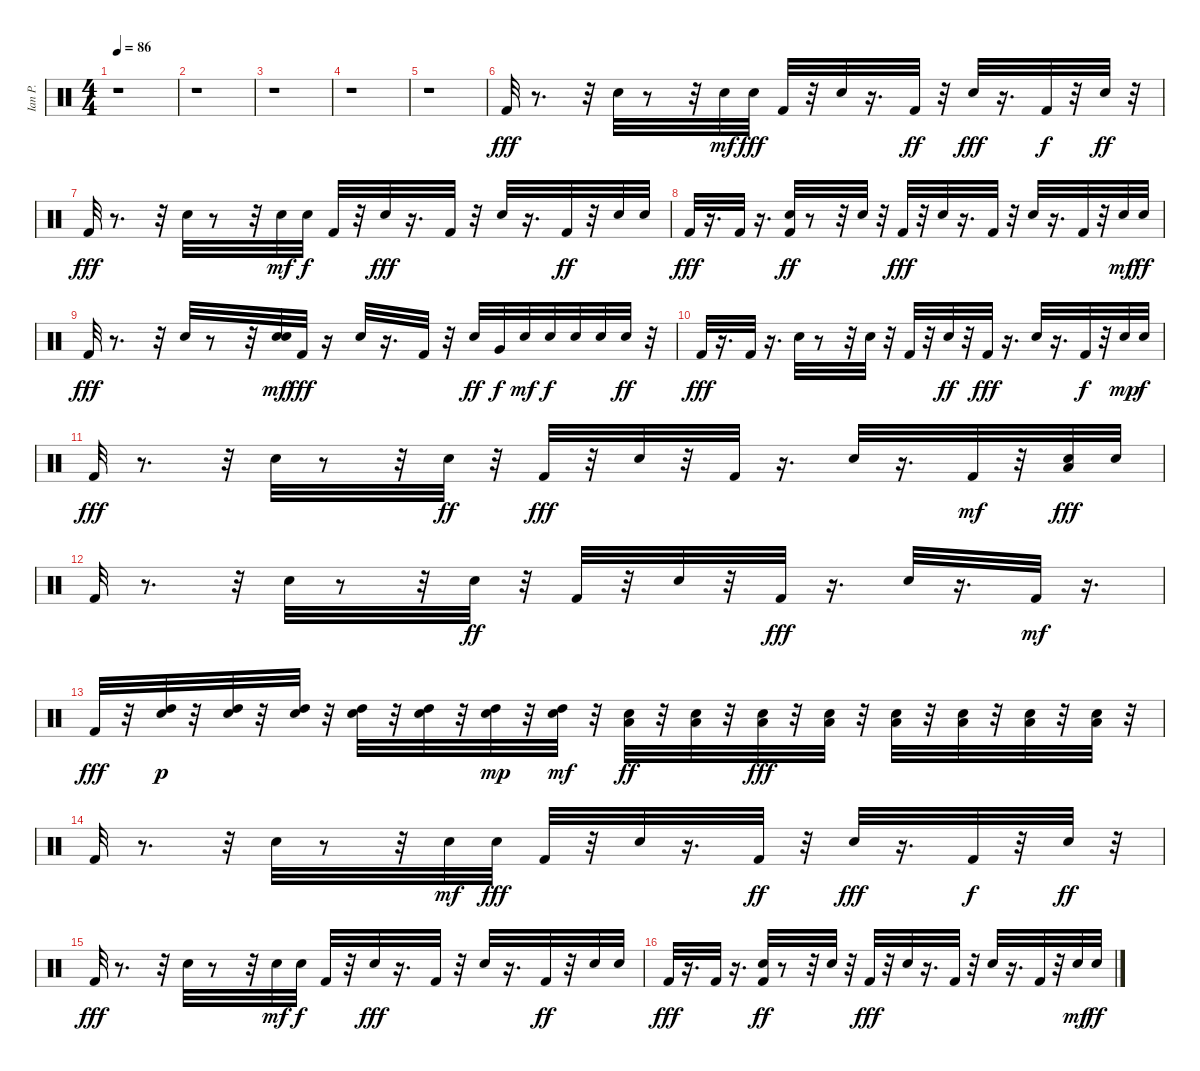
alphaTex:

\track ("Ian P." "Ian P.") {instrument percussion}
\staff {score}
\articulation defaults
\ts (4 4)
\tempo 86
\clef neutral
\ks c
r.1{dy fff} |
r.1 |
r.1 |
r.1 |
r.1 |
"Kick (hit) 2".32 r.8{d} r.32 "Snare (hit) 2".32 r.8 r.32 "Snare (hit) 2".32{dy mf} "Snare (hit) 2".32{dy fff} "Kick (hit) 2".32 r.32 "Snare (hit) 2".32 r.16{d} "Kick (hit) 2".32{dy ff} r.32 "Snare (hit) 2".32{dy fff} r.16{d} "Kick (hit) 2".32{dy f} r.32 "Snare (hit) 2".32{dy ff} r.32 |
"Kick (hit) 2".32{dy fff} r.8{d} r.32 "Snare (hit) 2".32 r.8 r.32 "Snare (hit) 2".32{dy mf} "Snare (hit) 2".32{dy f} "Kick (hit) 2".32 r.32 "Snare (hit) 2".32{dy fff} r.16{d} "Kick (hit) 2".32 r.32 "Snare (hit) 2".32 r.16{d} "Kick (hit) 2".32{dy ff} r.32 "Snare (hit) 2".32 "Snare (hit) 2".32 |
"Kick (hit) 2".32{dy fff} r.16{d} "Kick (hit) 2".32 r.16{d} ("Kick (hit) 2" "Snare (hit) 2").32{dy ff} r.8 r.32 "Snare (hit) 2".32 r.32 "Kick (hit) 2".32{dy fff} r.32 "Snare (hit) 2".32 r.16{d} "Kick (hit) 2".32 r.32 "Snare (hit) 2".32 r.16{d} "Kick (hit) 2".32 r.32 "Snare (hit) 2".32{dy mf} "Snare (hit) 2".32{dy ff} |
"Kick (hit) 2".32{dy fff} r.8{d} r.32 "Snare (hit) 2".32 r.8 r.32 ("Snare (hit) 2" "Snare (hit) 2").32{dy mf} "Kick (hit) 2".32{dy fff} r.16 "Snare (hit) 2".32 r.16{d} "Kick (hit) 2".32 r.32 "Snare (hit) 2".32{dy ff} "Very Low Tom (hit)".32{dy f} "Snare (hit) 2".32{dy mf} "Snare (hit) 2".32{dy f} "Snare (hit) 2".32 "Snare (hit) 2".32 "Snare (hit) 2".32{dy ff} r.32 |
"Kick (hit) 2".32{dy fff} r.16{d} "Kick (hit) 2".32 r.16{d} "Snare (hit) 2".32 r.8 r.32 "Snare (hit) 2".32 r.32 "Kick (hit) 2".32 r.32 "Snare (hit) 2".32{dy ff} r.32 "Kick (hit) 2".32{dy fff} r.16{d} "Snare (hit) 2".32 r.16{d} "Kick (hit) 2".32{dy f} r.32 "Snare (hit) 2".32{dy mp} "Snare (hit) 2".32{dy f} |
"Kick (hit) 2".32{dy fff} r.8{d} r.32 "Snare (hit) 2".32 r.8 r.32 "Snare (hit) 2".32{dy ff} r.32 "Kick (hit) 2".32{dy fff} r.32 "Snare (hit) 2".32 r.32 "Kick (hit) 2".32 r.16{d} "Snare (hit) 2".32 r.16{d} "Kick (hit) 2".32{dy mf} r.32 ("Snare (hit) 2" "Low Tom (hit)").32{dy fff} "Snare (hit) 2".32 |
"Kick (hit) 2".32 r.8{d} r.32 "Snare (hit) 2".32 r.8 r.32 "Snare (hit) 2".32{dy ff} r.32 "Kick (hit) 2".32 r.32 "Snare (hit) 2".32 r.32 "Kick (hit) 2".32{dy fff} r.16{d} "Snare (hit) 2".32 r.16{d} "Kick (hit) 2".32{dy mf} r.16{d} |
"Kick (hit) 2".32{dy fff} r.32 ("Snare (hit) 2" "High Tom (hit)").32{dy p} r.32 ("Snare (hit) 2" "High Tom (hit)").32 r.32 ("Snare (hit) 2" "High Tom (hit)").32 r.32 ("Snare (hit) 2" "High Tom (hit)").32 r.32 ("Snare (hit) 2" "High Tom (hit)").32 r.32 ("Snare (hit) 2" "High Tom (hit)").32{dy mp} r.32 ("Snare (hit) 2" "High Tom (hit)").32{dy mf} r.32 ("Snare (hit) 2" "Low Tom (hit)").32{dy ff} r.32 ("Snare (hit) 2" "Low Tom (hit)").32 r.32 ("Snare (hit) 2" "Low Tom (hit)").32{dy fff} r.32 ("Snare (hit) 2" "Low Tom (hit)").32 r.32 ("Snare (hit) 2" "Low Floor Tom (hit)").32 r.32 ("Snare (hit) 2" "Low Floor Tom (hit)").32 r.32 ("Snare (hit) 2" "Low Floor Tom (hit)").32 r.32 ("Snare (hit) 2" "Low Floor Tom (hit)").32 r.32 |
"Kick (hit) 2".32 r.8{d} r.32 "Snare (hit) 2".32 r.8 r.32 "Snare (hit) 2".32{dy mf} "Snare (hit) 2".32{dy fff} "Kick (hit) 2".32 r.32 "Snare (hit) 2".32 r.16{d} "Kick (hit) 2".32{dy ff} r.32 "Snare (hit) 2".32{dy fff} r.16{d} "Kick (hit) 2".32{dy f} r.32 "Snare (hit) 2".32{dy ff} r.32 |
"Kick (hit) 2".32{dy fff} r.8{d} r.32 "Snare (hit) 2".32 r.8 r.32 "Snare (hit) 2".32{dy mf} "Snare (hit) 2".32{dy f} "Kick (hit) 2".32 r.32 "Snare (hit) 2".32{dy fff} r.16{d} "Kick (hit) 2".32 r.32 "Snare (hit) 2".32 r.16{d} "Kick (hit) 2".32{dy ff} r.32 "Snare (hit) 2".32 "Snare (hit) 2".32 |
"Kick (hit) 2".32{dy fff} r.16{d} "Kick (hit) 2".32 r.16{d} ("Kick (hit) 2" "Snare (hit) 2").32{dy ff} r.8 r.32 "Snare (hit) 2".32 r.32 "Kick (hit) 2".32{dy fff} r.32 "Snare (hit) 2".32 r.16{d} "Kick (hit) 2".32 r.32 "Snare (hit) 2".32 r.16{d} "Kick (hit) 2".32 r.32 "Snare (hit) 2".32{dy mf} "Snare (hit) 2".32{dy ff}
